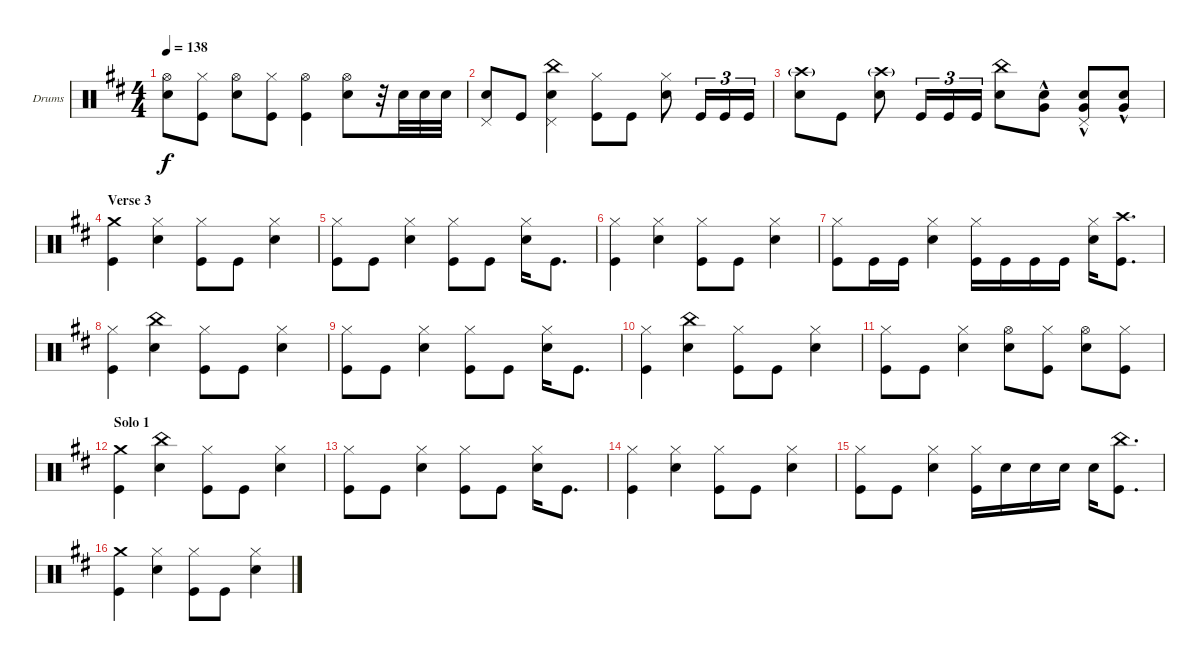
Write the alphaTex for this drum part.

\defaultSystemsLayout 4
\bracketExtendMode groupsimilarinstruments
\firstSystemTrackNameOrientation horizontal
\otherSystemsTrackNameOrientation horizontal
\track ("Drumkit" "Drums") {instrument percussion}
\staff {score}
\articulation defaults
\ts (4 4)
\tempo 138
\clef neutral
\ks d
("Snare (hit) 2" "Hi-Hat (open)").8{dy f} ("Kick (hit)" "Hi-Hat (closed)").8 ("Snare (hit) 2" "Hi-Hat (open)").8 ("Kick (hit)" "Hi-Hat (closed)").8 ("Kick (hit)" "Hi-Hat (open)").4 ("Snare (hit) 2" "Hi-Hat (open)").8 r.32 "Snare (hit) 2".32 "Snare (hit) 2".32 "Snare (hit) 2".32 |
("Snare (hit) 2" "Pedal Hi-Hat (hit)").8 "Kick (hit)".8 ("Snare (hit) 2" "China (hit)" "Pedal Hi-Hat (hit)").4 ("Hi-Hat (closed)" "Kick (hit)").8 "Kick (hit)".8 ("Snare (hit) 2" "Hi-Hat (closed)").8 "Kick (hit)".16{tu (3 2)} "Kick (hit)".16{tu (3 2)} "Kick (hit)".16{tu (3 2)} |
("Crash high (hit)"{g} "Snare (hit) 2").8 "Kick (hit)".8 ("Crash high (hit)"{g} "Snare (hit) 2").8 "Kick (hit)".16{tu (3 2)} "Kick (hit)".16{tu (3 2)} "Kick (hit)".16{tu (3 2)} ("Snare (hit) 2" "China (hit)").8 ("Very Low Tom (hit)"{hac} "Snare (hit) 2").8 ("Pedal Hi-Hat (hit)" "Very Low Tom (hit)"{hac} "Snare (hit) 2").8 ("Very Low Tom (hit)"{hac} "Snare (hit) 2").8 |
\section ("" "Verse 3")
("Kick (hit)" "Crash medium (hit)").4 ("Snare (hit) 2" "Hi-Hat (closed)").4 ("Hi-Hat (closed)" "Kick (hit)").8 "Kick (hit)".8 ("Snare (hit) 2" "Hi-Hat (closed)").4 |
("Hi-Hat (closed)" "Kick (hit)").8 "Kick (hit)".8 ("Snare (hit) 2" "Hi-Hat (closed)").4 ("Hi-Hat (closed)" "Kick (hit)").8 "Kick (hit)".8 ("Snare (hit) 2" "Hi-Hat (closed)").16 "Kick (hit)".8{d} |
("Kick (hit)" "Hi-Hat (closed)").4 ("Snare (hit) 2" "Hi-Hat (closed)").4 ("Hi-Hat (closed)" "Kick (hit)").8 "Kick (hit)".8 ("Snare (hit) 2" "Hi-Hat (closed)").4 |
("Hi-Hat (closed)" "Kick (hit)").8 "Kick (hit)".16 "Kick (hit)".16 ("Snare (hit) 2" "Hi-Hat (closed)").4 ("Hi-Hat (closed)" "Kick (hit)").16 "Kick (hit)".16 "Kick (hit)".16 "Kick (hit)".16 ("Snare (hit) 2" "Hi-Hat (closed)").16 ("Kick (hit)" "Crash high (hit)").8{d} |
("Kick (hit)" "Hi-Hat (closed)").4 ("Snare (hit) 2" "China (hit)").4 ("Hi-Hat (closed)" "Kick (hit)").8 "Kick (hit)".8 ("Snare (hit) 2" "Hi-Hat (closed)").4 |
("Hi-Hat (closed)" "Kick (hit)").8 "Kick (hit)".8 ("Snare (hit) 2" "Hi-Hat (closed)").4 ("Hi-Hat (closed)" "Kick (hit)").8 "Kick (hit)".8 ("Snare (hit) 2" "Hi-Hat (closed)").16 "Kick (hit)".8{d} |
("Kick (hit)" "Hi-Hat (closed)").4 ("Snare (hit) 2" "China (hit)").4 ("Hi-Hat (closed)" "Kick (hit)").8 "Kick (hit)".8 ("Snare (hit) 2" "Hi-Hat (closed)").4 |
("Hi-Hat (closed)" "Kick (hit)").8 "Kick (hit)".8 ("Snare (hit) 2" "Hi-Hat (closed)").4 ("Snare (hit) 2" "Hi-Hat (open)").8 ("Hi-Hat (closed)" "Kick (hit)").8 ("Snare (hit) 2" "Hi-Hat (open)").8 ("Hi-Hat (closed)" "Kick (hit)").8 |
\section ("" "Solo 1")
("Kick (hit)" "Crash medium (hit)").4 ("Snare (hit) 2" "China (hit)").4 ("Hi-Hat (closed)" "Kick (hit)").8 "Kick (hit)".8 ("Snare (hit) 2" "Hi-Hat (closed)").4 |
("Hi-Hat (closed)" "Kick (hit)").8 "Kick (hit)".8 ("Snare (hit) 2" "Hi-Hat (closed)").4 ("Hi-Hat (closed)" "Kick (hit)").8 "Kick (hit)".8 ("Snare (hit) 2" "Hi-Hat (closed)").16 "Kick (hit)".8{d} |
("Kick (hit)" "Hi-Hat (closed)").4 ("Snare (hit) 2" "Hi-Hat (closed)").4 ("Hi-Hat (closed)" "Kick (hit)").8 "Kick (hit)".8 ("Snare (hit) 2" "Hi-Hat (closed)").4 |
("Hi-Hat (closed)" "Kick (hit)").8 "Kick (hit)".8 ("Snare (hit) 2" "Hi-Hat (closed)").4 ("Hi-Hat (closed)" "Kick (hit)").16 "Snare (hit) 2".16 "Snare (hit) 2".16 "Snare (hit) 2".16 "Snare (hit) 2".16 ("Kick (hit)" "China (hit)").8{d} |
("Kick (hit)" "Crash medium (hit)").4 ("Snare (hit) 2" "Hi-Hat (closed)").4 ("Hi-Hat (closed)" "Kick (hit)").8 "Kick (hit)".8 ("Snare (hit) 2" "Hi-Hat (closed)").4
